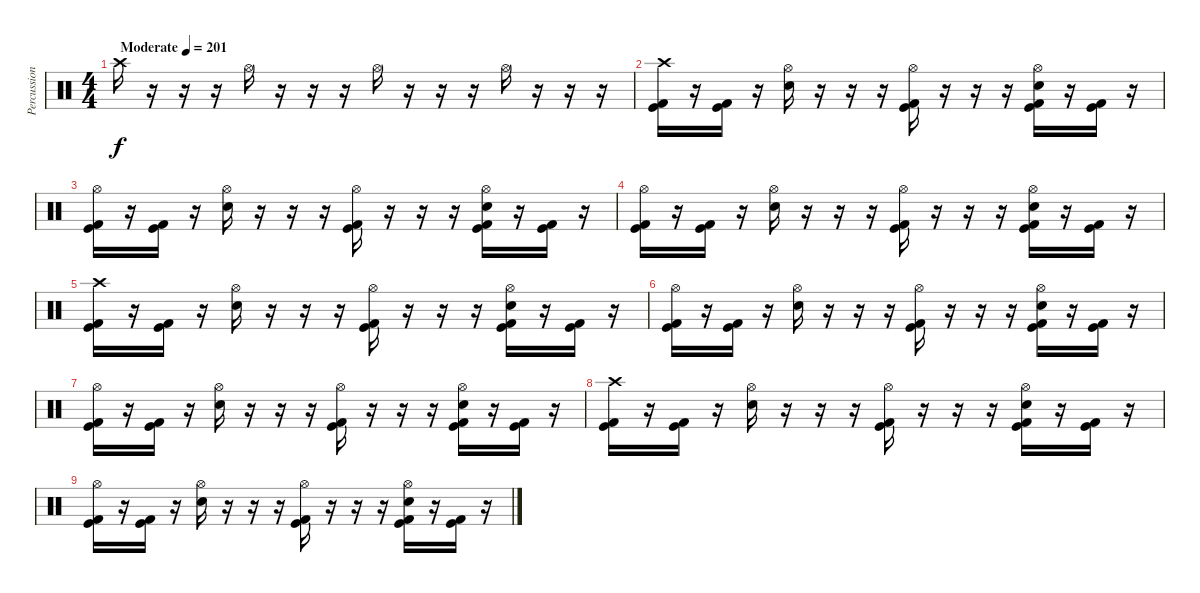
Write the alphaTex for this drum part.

\track ("Percussion" "Percussion") {instrument percussion}
\staff {score}
\articulation defaults
\ts (4 4)
\tempo (201 "Moderate")
\clef neutral
\ks c "Crash high (hit)".16{dy f}
r.16 r.16 r.16 "Hi-Hat (open)".16 r.16 r.16 r.16 "Hi-Hat (open)".16 r.16 r.16 r.16 "Hi-Hat (open)".16 r.16 r.16 r.16 |
("Crash high (hit)" "Kick (hit)" "Kick (hit) 2").16 r.16 ("Kick (hit)" "Kick (hit) 2").16 r.16 ("Hi-Hat (open)" "Snare (hit) 2").16 r.16 r.16 r.16 ("Hi-Hat (open)" "Kick (hit)" "Kick (hit) 2").16 r.16 r.16 r.16 ("Hi-Hat (open)" "Snare (hit) 2" "Kick (hit)" "Kick (hit) 2").16 r.16 ("Kick (hit)" "Kick (hit) 2").16 r.16 |
("Hi-Hat (open)" "Kick (hit)" "Kick (hit) 2").16 r.16 ("Kick (hit)" "Kick (hit) 2").16 r.16 ("Hi-Hat (open)" "Snare (hit) 2").16 r.16 r.16 r.16 ("Hi-Hat (open)" "Kick (hit)" "Kick (hit) 2").16 r.16 r.16 r.16 ("Hi-Hat (open)" "Snare (hit) 2" "Kick (hit)" "Kick (hit) 2").16 r.16 ("Kick (hit)" "Kick (hit) 2").16 r.16 |
("Hi-Hat (open)" "Kick (hit)" "Kick (hit) 2").16 r.16 ("Kick (hit)" "Kick (hit) 2").16 r.16 ("Hi-Hat (open)" "Snare (hit) 2").16 r.16 r.16 r.16 ("Hi-Hat (open)" "Kick (hit)" "Kick (hit) 2").16 r.16 r.16 r.16 ("Hi-Hat (open)" "Snare (hit) 2" "Kick (hit)" "Kick (hit) 2").16 r.16 ("Kick (hit)" "Kick (hit) 2").16 r.16 |
("Crash high (hit)" "Kick (hit)" "Kick (hit) 2").16 r.16 ("Kick (hit)" "Kick (hit) 2").16 r.16 ("Hi-Hat (open)" "Snare (hit) 2").16 r.16 r.16 r.16 ("Hi-Hat (open)" "Kick (hit)" "Kick (hit) 2").16 r.16 r.16 r.16 ("Hi-Hat (open)" "Snare (hit) 2" "Kick (hit)" "Kick (hit) 2").16 r.16 ("Kick (hit)" "Kick (hit) 2").16 r.16 |
("Hi-Hat (open)" "Kick (hit)" "Kick (hit) 2").16 r.16 ("Kick (hit)" "Kick (hit) 2").16 r.16 ("Hi-Hat (open)" "Snare (hit) 2").16 r.16 r.16 r.16 ("Hi-Hat (open)" "Kick (hit)" "Kick (hit) 2").16 r.16 r.16 r.16 ("Hi-Hat (open)" "Snare (hit) 2" "Kick (hit)" "Kick (hit) 2").16 r.16 ("Kick (hit)" "Kick (hit) 2").16 r.16 |
("Hi-Hat (open)" "Kick (hit)" "Kick (hit) 2").16 r.16 ("Kick (hit)" "Kick (hit) 2").16 r.16 ("Hi-Hat (open)" "Snare (hit) 2").16 r.16 r.16 r.16 ("Hi-Hat (open)" "Kick (hit)" "Kick (hit) 2").16 r.16 r.16 r.16 ("Hi-Hat (open)" "Snare (hit) 2" "Kick (hit)" "Kick (hit) 2").16 r.16 ("Kick (hit)" "Kick (hit) 2").16 r.16 |
("Crash high (hit)" "Kick (hit)" "Kick (hit) 2").16 r.16 ("Kick (hit)" "Kick (hit) 2").16 r.16 ("Hi-Hat (open)" "Snare (hit) 2").16 r.16 r.16 r.16 ("Hi-Hat (open)" "Kick (hit)" "Kick (hit) 2").16 r.16 r.16 r.16 ("Hi-Hat (open)" "Snare (hit) 2" "Kick (hit)" "Kick (hit) 2").16 r.16 ("Kick (hit)" "Kick (hit) 2").16 r.16 |
("Hi-Hat (open)" "Kick (hit)" "Kick (hit) 2").16 r.16 ("Kick (hit)" "Kick (hit) 2").16 r.16 ("Hi-Hat (open)" "Snare (hit) 2").16 r.16 r.16 r.16 ("Hi-Hat (open)" "Kick (hit)" "Kick (hit) 2").16 r.16 r.16 r.16 ("Hi-Hat (open)" "Snare (hit) 2" "Kick (hit)" "Kick (hit) 2").16 r.16 ("Kick (hit)" "Kick (hit) 2").16 r.16
